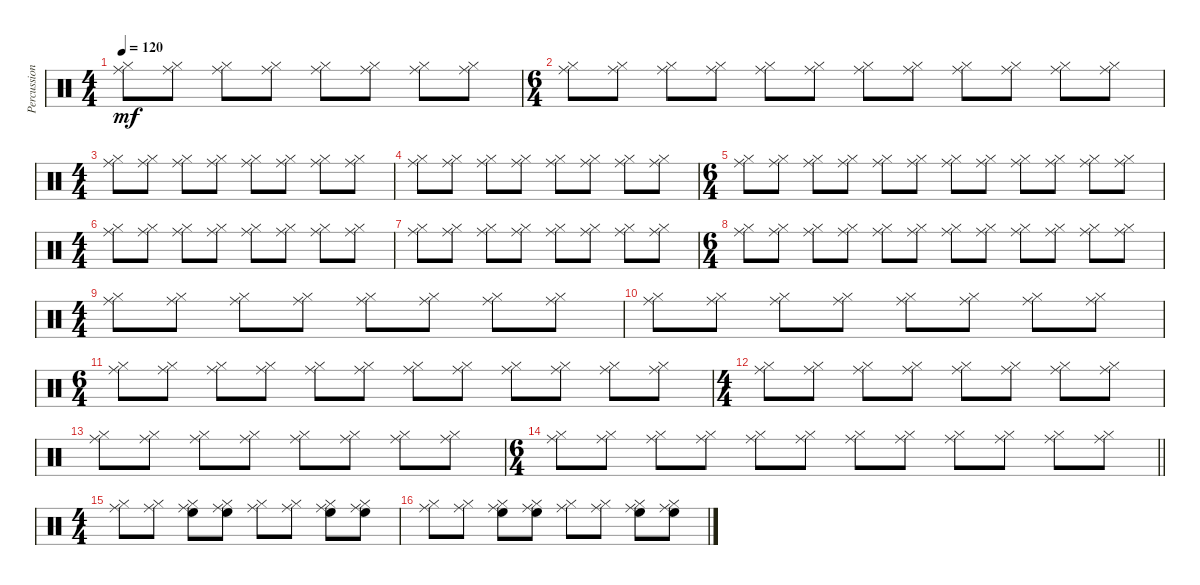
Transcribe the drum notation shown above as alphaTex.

\track ("Percussion" "Percussion") {instrument percussion}
\staff {score}
\articulation defaults
\ts (4 4)
\tempo 120
\clef neutral
\ks c
("Ride (middle)" "Hi-Hat (closed)").8{dy mf} ("Ride (middle)" "Hi-Hat (closed)").8 ("Ride (middle)" "Hi-Hat (closed)").8 ("Ride (middle)" "Hi-Hat (closed)").8 ("Ride (middle)" "Hi-Hat (closed)").8 ("Ride (middle)" "Hi-Hat (closed)").8 ("Ride (middle)" "Hi-Hat (closed)").8 ("Ride (middle)" "Hi-Hat (closed)").8 |
\ts (6 4)
("Ride (middle)" "Hi-Hat (closed)").8 ("Ride (middle)" "Hi-Hat (closed)").8 ("Ride (middle)" "Hi-Hat (closed)").8 ("Ride (middle)" "Hi-Hat (closed)").8 ("Ride (middle)" "Hi-Hat (closed)").8 ("Ride (middle)" "Hi-Hat (closed)").8 ("Ride (middle)" "Hi-Hat (closed)").8 ("Ride (middle)" "Hi-Hat (closed)").8 ("Ride (middle)" "Hi-Hat (closed)").8 ("Ride (middle)" "Hi-Hat (closed)").8 ("Ride (middle)" "Hi-Hat (closed)").8 ("Ride (middle)" "Hi-Hat (closed)").8 |
\ts (4 4)
("Ride (middle)" "Hi-Hat (closed)").8 ("Ride (middle)" "Hi-Hat (closed)").8 ("Ride (middle)" "Hi-Hat (closed)").8 ("Ride (middle)" "Hi-Hat (closed)").8 ("Ride (middle)" "Hi-Hat (closed)").8 ("Ride (middle)" "Hi-Hat (closed)").8 ("Ride (middle)" "Hi-Hat (closed)").8 ("Ride (middle)" "Hi-Hat (closed)").8 |
("Ride (middle)" "Hi-Hat (closed)").8 ("Ride (middle)" "Hi-Hat (closed)").8 ("Ride (middle)" "Hi-Hat (closed)").8 ("Ride (middle)" "Hi-Hat (closed)").8 ("Ride (middle)" "Hi-Hat (closed)").8 ("Ride (middle)" "Hi-Hat (closed)").8 ("Ride (middle)" "Hi-Hat (closed)").8 ("Ride (middle)" "Hi-Hat (closed)").8 |
\ts (6 4)
("Ride (middle)" "Hi-Hat (closed)").8 ("Ride (middle)" "Hi-Hat (closed)").8 ("Ride (middle)" "Hi-Hat (closed)").8 ("Ride (middle)" "Hi-Hat (closed)").8 ("Ride (middle)" "Hi-Hat (closed)").8 ("Ride (middle)" "Hi-Hat (closed)").8 ("Ride (middle)" "Hi-Hat (closed)").8 ("Ride (middle)" "Hi-Hat (closed)").8 ("Ride (middle)" "Hi-Hat (closed)").8 ("Ride (middle)" "Hi-Hat (closed)").8 ("Ride (middle)" "Hi-Hat (closed)").8 ("Ride (middle)" "Hi-Hat (closed)").8 |
\ts (4 4)
("Ride (middle)" "Hi-Hat (closed)").8 ("Ride (middle)" "Hi-Hat (closed)").8 ("Ride (middle)" "Hi-Hat (closed)").8 ("Ride (middle)" "Hi-Hat (closed)").8 ("Ride (middle)" "Hi-Hat (closed)").8 ("Ride (middle)" "Hi-Hat (closed)").8 ("Ride (middle)" "Hi-Hat (closed)").8 ("Ride (middle)" "Hi-Hat (closed)").8 |
("Ride (middle)" "Hi-Hat (closed)").8 ("Ride (middle)" "Hi-Hat (closed)").8 ("Ride (middle)" "Hi-Hat (closed)").8 ("Ride (middle)" "Hi-Hat (closed)").8 ("Ride (middle)" "Hi-Hat (closed)").8 ("Ride (middle)" "Hi-Hat (closed)").8 ("Ride (middle)" "Hi-Hat (closed)").8 ("Ride (middle)" "Hi-Hat (closed)").8 |
\ts (6 4)
("Ride (middle)" "Hi-Hat (closed)").8 ("Ride (middle)" "Hi-Hat (closed)").8 ("Ride (middle)" "Hi-Hat (closed)").8 ("Ride (middle)" "Hi-Hat (closed)").8 ("Ride (middle)" "Hi-Hat (closed)").8 ("Ride (middle)" "Hi-Hat (closed)").8 ("Ride (middle)" "Hi-Hat (closed)").8 ("Ride (middle)" "Hi-Hat (closed)").8 ("Ride (middle)" "Hi-Hat (closed)").8 ("Ride (middle)" "Hi-Hat (closed)").8 ("Ride (middle)" "Hi-Hat (closed)").8 ("Ride (middle)" "Hi-Hat (closed)").8 |
\ts (4 4)
("Ride (middle)" "Hi-Hat (closed)").8 ("Ride (middle)" "Hi-Hat (closed)").8 ("Ride (middle)" "Hi-Hat (closed)").8 ("Ride (middle)" "Hi-Hat (closed)").8 ("Ride (middle)" "Hi-Hat (closed)").8 ("Ride (middle)" "Hi-Hat (closed)").8 ("Ride (middle)" "Hi-Hat (closed)").8 ("Ride (middle)" "Hi-Hat (closed)").8 |
("Ride (middle)" "Hi-Hat (closed)").8 ("Ride (middle)" "Hi-Hat (closed)").8 ("Ride (middle)" "Hi-Hat (closed)").8 ("Ride (middle)" "Hi-Hat (closed)").8 ("Ride (middle)" "Hi-Hat (closed)").8 ("Ride (middle)" "Hi-Hat (closed)").8 ("Ride (middle)" "Hi-Hat (closed)").8 ("Ride (middle)" "Hi-Hat (closed)").8 |
\ts (6 4)
("Ride (middle)" "Hi-Hat (closed)").8 ("Ride (middle)" "Hi-Hat (closed)").8 ("Ride (middle)" "Hi-Hat (closed)").8 ("Ride (middle)" "Hi-Hat (closed)").8 ("Ride (middle)" "Hi-Hat (closed)").8 ("Ride (middle)" "Hi-Hat (closed)").8 ("Ride (middle)" "Hi-Hat (closed)").8 ("Ride (middle)" "Hi-Hat (closed)").8 ("Ride (middle)" "Hi-Hat (closed)").8 ("Ride (middle)" "Hi-Hat (closed)").8 ("Ride (middle)" "Hi-Hat (closed)").8 ("Ride (middle)" "Hi-Hat (closed)").8 |
\ts (4 4)
("Ride (middle)" "Hi-Hat (closed)").8 ("Ride (middle)" "Hi-Hat (closed)").8 ("Ride (middle)" "Hi-Hat (closed)").8 ("Ride (middle)" "Hi-Hat (closed)").8 ("Ride (middle)" "Hi-Hat (closed)").8 ("Ride (middle)" "Hi-Hat (closed)").8 ("Ride (middle)" "Hi-Hat (closed)").8 ("Ride (middle)" "Hi-Hat (closed)").8 |
("Ride (middle)" "Hi-Hat (closed)").8 ("Ride (middle)" "Hi-Hat (closed)").8 ("Ride (middle)" "Hi-Hat (closed)").8 ("Ride (middle)" "Hi-Hat (closed)").8 ("Ride (middle)" "Hi-Hat (closed)").8 ("Ride (middle)" "Hi-Hat (closed)").8 ("Ride (middle)" "Hi-Hat (closed)").8 ("Ride (middle)" "Hi-Hat (closed)").8 |
\ts (6 4)
\barLineRight lightlight
("Ride (middle)" "Hi-Hat (closed)").8 ("Ride (middle)" "Hi-Hat (closed)").8 ("Ride (middle)" "Hi-Hat (closed)").8 ("Ride (middle)" "Hi-Hat (closed)").8 ("Ride (middle)" "Hi-Hat (closed)").8 ("Ride (middle)" "Hi-Hat (closed)").8 ("Ride (middle)" "Hi-Hat (closed)").8 ("Ride (middle)" "Hi-Hat (closed)").8 ("Ride (middle)" "Hi-Hat (closed)").8 ("Ride (middle)" "Hi-Hat (closed)").8 ("Ride (middle)" "Hi-Hat (closed)").8 ("Ride (middle)" "Hi-Hat (closed)").8 |
\ts (4 4)
("Ride (middle)" "Hi-Hat (closed)").8 ("Ride (middle)" "Hi-Hat (closed)").8 ("Ride (middle)" "Hi-Hat (closed)" "High Floor Tom (hit)").8 ("Ride (middle)" "Hi-Hat (closed)" "High Floor Tom (hit)").8 ("Ride (middle)" "Hi-Hat (closed)").8 ("Ride (middle)" "Hi-Hat (closed)").8 ("Ride (middle)" "Hi-Hat (closed)" "High Floor Tom (hit)").8 ("Ride (middle)" "Hi-Hat (closed)" "High Floor Tom (hit)").8 |
("Ride (middle)" "Hi-Hat (closed)").8 ("Ride (middle)" "Hi-Hat (closed)").8 ("Ride (middle)" "Hi-Hat (closed)" "High Floor Tom (hit)").8 ("Ride (middle)" "Hi-Hat (closed)" "High Floor Tom (hit)").8 ("Ride (middle)" "Hi-Hat (closed)").8 ("Ride (middle)" "Hi-Hat (closed)").8 ("Ride (middle)" "Hi-Hat (closed)" "High Floor Tom (hit)").8 ("Ride (middle)" "Hi-Hat (closed)" "High Floor Tom (hit)").8
